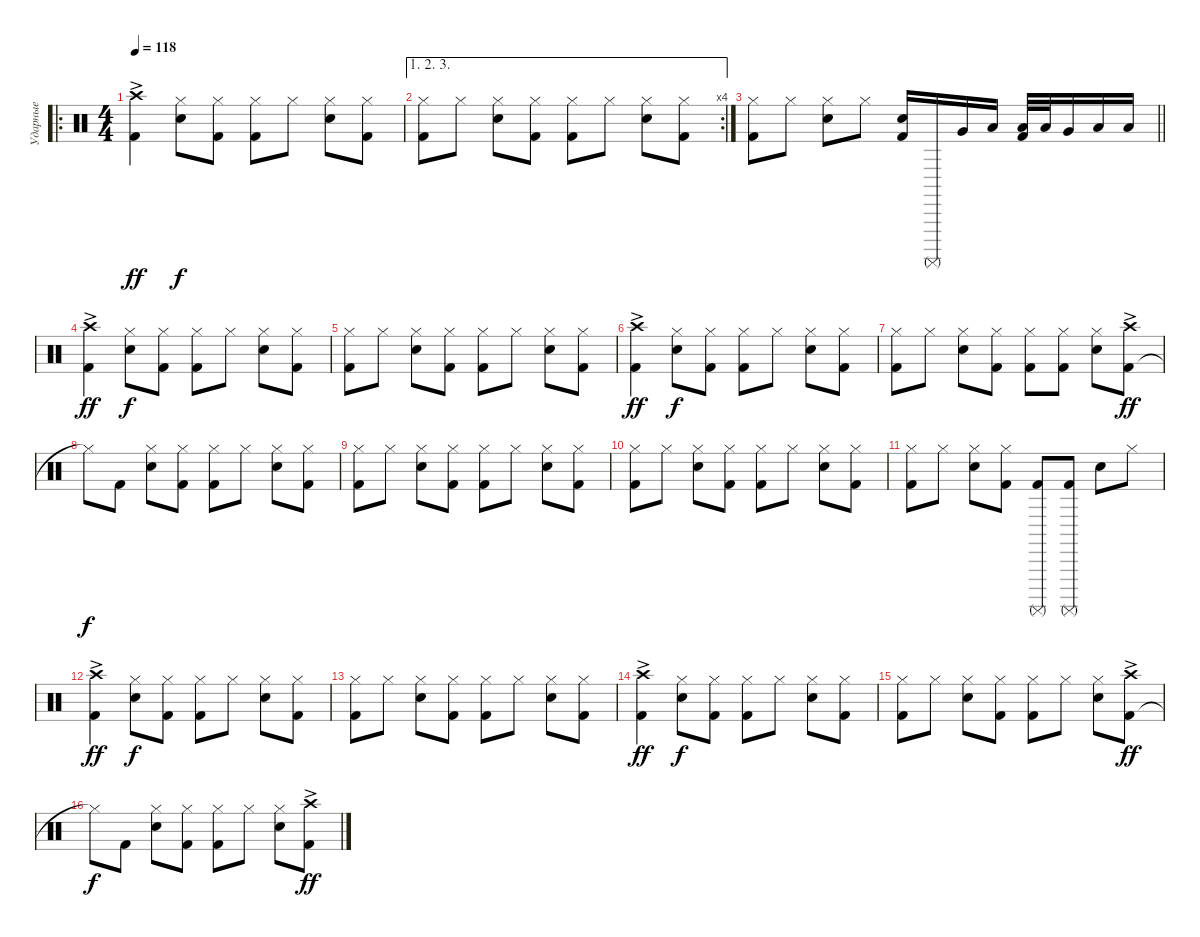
\track ("Ударные" "Ударные") {instrument percussion}
\staff
\articulation defaults
\ro
\ts (4 4)
\tempo 118
\clef neutral
\ks c
("Kick (hit) 2" "Crash high (hit)"{ac}).4{dy ff} ("Snare (hit) 2" "Hi-Hat (closed)").8{dy f} ("Kick (hit) 2" "Hi-Hat (closed)").8 ("Kick (hit) 2" "Hi-Hat (closed)").8 "Hi-Hat (closed)".8 ("Snare (hit) 2" "Hi-Hat (closed)").8 ("Kick (hit) 2" "Hi-Hat (closed)").8 |
\ae (1 2 3)
\rc 4
("Kick (hit) 2" "Hi-Hat (closed)").8 "Hi-Hat (closed)".8 ("Snare (hit) 2" "Hi-Hat (closed)").8 ("Kick (hit) 2" "Hi-Hat (closed)").8 ("Kick (hit) 2" "Hi-Hat (closed)").8 "Hi-Hat (closed)".8 ("Snare (hit) 2" "Hi-Hat (closed)").8 ("Kick (hit) 2" "Hi-Hat (closed)").8 |
\barLineRight lightlight
("Kick (hit) 2" "Hi-Hat (closed)").8 "Hi-Hat (closed)".8 ("Snare (hit) 2" "Hi-Hat (closed)").8 "Hi-Hat (closed)".8 ("Kick (hit) 2" "Snare (hit) 2").16 "Surdo (mute)".16 "Very Low Tom (hit)".16 "Low Floor Tom (hit)".16 ("Kick (hit) 2" "Low Tom (hit)").32 "Low Tom (hit)".32 "Very Low Tom (hit)".16 "Low Tom (hit)".16 "Low Floor Tom (hit)".16 |
("Kick (hit) 2" "Crash high (hit)"{ac}).4{dy ff} ("Snare (hit) 2" "Hi-Hat (closed)").8{dy f} ("Kick (hit) 2" "Hi-Hat (closed)").8 ("Kick (hit) 2" "Hi-Hat (closed)").8 "Hi-Hat (closed)".8 ("Snare (hit) 2" "Hi-Hat (closed)").8 ("Kick (hit) 2" "Hi-Hat (closed)").8 |
("Kick (hit) 2" "Hi-Hat (closed)").8 "Hi-Hat (closed)".8 ("Snare (hit) 2" "Hi-Hat (closed)").8 ("Kick (hit) 2" "Hi-Hat (closed)").8 ("Kick (hit) 2" "Hi-Hat (closed)").8 "Hi-Hat (closed)".8 ("Snare (hit) 2" "Hi-Hat (closed)").8 ("Kick (hit) 2" "Hi-Hat (closed)").8 |
("Kick (hit) 2" "Crash high (hit)"{ac}).4{dy ff} ("Snare (hit) 2" "Hi-Hat (closed)").8{dy f} ("Kick (hit) 2" "Hi-Hat (closed)").8 ("Kick (hit) 2" "Hi-Hat (closed)").8 "Hi-Hat (closed)".8 ("Snare (hit) 2" "Hi-Hat (closed)").8 ("Kick (hit) 2" "Hi-Hat (closed)").8 |
("Kick (hit) 2" "Hi-Hat (closed)").8 "Hi-Hat (closed)".8 ("Snare (hit) 2" "Hi-Hat (closed)").8 ("Kick (hit) 2" "Hi-Hat (closed)").8 ("Kick (hit) 2" "Hi-Hat (closed)").8 ("Kick (hit) 2" "Hi-Hat (closed)").8 ("Snare (hit) 2" "Hi-Hat (closed)").8 ("Kick (hit) 2" "Crash high (hit)"{ac}).8{dy ff} |
"Hi-Hat (closed)"{t}.8{dy f} "Kick (hit) 2".8 ("Snare (hit) 2" "Hi-Hat (closed)").8 ("Kick (hit) 2" "Hi-Hat (closed)").8 ("Kick (hit) 2" "Hi-Hat (closed)").8 "Hi-Hat (closed)".8 ("Snare (hit) 2" "Hi-Hat (closed)").8 ("Kick (hit) 2" "Hi-Hat (closed)").8 |
("Kick (hit) 2" "Hi-Hat (closed)").8 "Hi-Hat (closed)".8 ("Snare (hit) 2" "Hi-Hat (closed)").8 ("Kick (hit) 2" "Hi-Hat (closed)").8 ("Kick (hit) 2" "Hi-Hat (closed)").8 "Hi-Hat (closed)".8 ("Snare (hit) 2" "Hi-Hat (closed)").8 ("Kick (hit) 2" "Hi-Hat (closed)").8 |
("Kick (hit) 2" "Hi-Hat (closed)").8 "Hi-Hat (closed)".8 ("Snare (hit) 2" "Hi-Hat (closed)").8 ("Kick (hit) 2" "Hi-Hat (closed)").8 ("Kick (hit) 2" "Hi-Hat (closed)").8 "Hi-Hat (closed)".8 ("Snare (hit) 2" "Hi-Hat (closed)").8 ("Kick (hit) 2" "Hi-Hat (closed)").8 |
("Kick (hit) 2" "Hi-Hat (closed)").8 "Hi-Hat (closed)".8 ("Snare (hit) 2" "Hi-Hat (closed)").8 ("Kick (hit) 2" "Hi-Hat (closed)").8 ("Kick (hit) 2" "Surdo (mute)").8 ("Kick (hit) 2" "Surdo (mute)").8 "Snare (hit) 2".8 "Hi-Hat (closed)".8 |
("Kick (hit) 2" "Crash high (hit)"{ac}).4{dy ff} ("Snare (hit) 2" "Hi-Hat (closed)").8{dy f} ("Kick (hit) 2" "Hi-Hat (closed)").8 ("Kick (hit) 2" "Hi-Hat (closed)").8 "Hi-Hat (closed)".8 ("Snare (hit) 2" "Hi-Hat (closed)").8 ("Kick (hit) 2" "Hi-Hat (closed)").8 |
("Kick (hit) 2" "Hi-Hat (closed)").8 "Hi-Hat (closed)".8 ("Snare (hit) 2" "Hi-Hat (closed)").8 ("Kick (hit) 2" "Hi-Hat (closed)").8 ("Kick (hit) 2" "Hi-Hat (closed)").8 "Hi-Hat (closed)".8 ("Snare (hit) 2" "Hi-Hat (closed)").8 ("Kick (hit) 2" "Hi-Hat (closed)").8 |
("Kick (hit) 2" "Crash high (hit)"{ac}).4{dy ff} ("Snare (hit) 2" "Hi-Hat (closed)").8{dy f} ("Kick (hit) 2" "Hi-Hat (closed)").8 ("Kick (hit) 2" "Hi-Hat (closed)").8 "Hi-Hat (closed)".8 ("Snare (hit) 2" "Hi-Hat (closed)").8 ("Kick (hit) 2" "Hi-Hat (closed)").8 |
("Kick (hit) 2" "Hi-Hat (closed)").8 "Hi-Hat (closed)".8 ("Snare (hit) 2" "Hi-Hat (closed)").8 ("Kick (hit) 2" "Hi-Hat (closed)").8 ("Kick (hit) 2" "Hi-Hat (closed)").8 "Hi-Hat (closed)".8 ("Snare (hit) 2" "Hi-Hat (closed)").8 ("Kick (hit) 2" "Crash high (hit)"{ac}).8{dy ff} |
"Hi-Hat (closed)"{t}.8{dy f} "Kick (hit) 2".8 ("Snare (hit) 2" "Hi-Hat (closed)").8 ("Kick (hit) 2" "Hi-Hat (closed)").8 ("Kick (hit) 2" "Hi-Hat (closed)").8 "Hi-Hat (closed)".8 ("Snare (hit) 2" "Hi-Hat (closed)").8 ("Kick (hit) 2" "Crash high (hit)"{ac}).8{dy ff}
